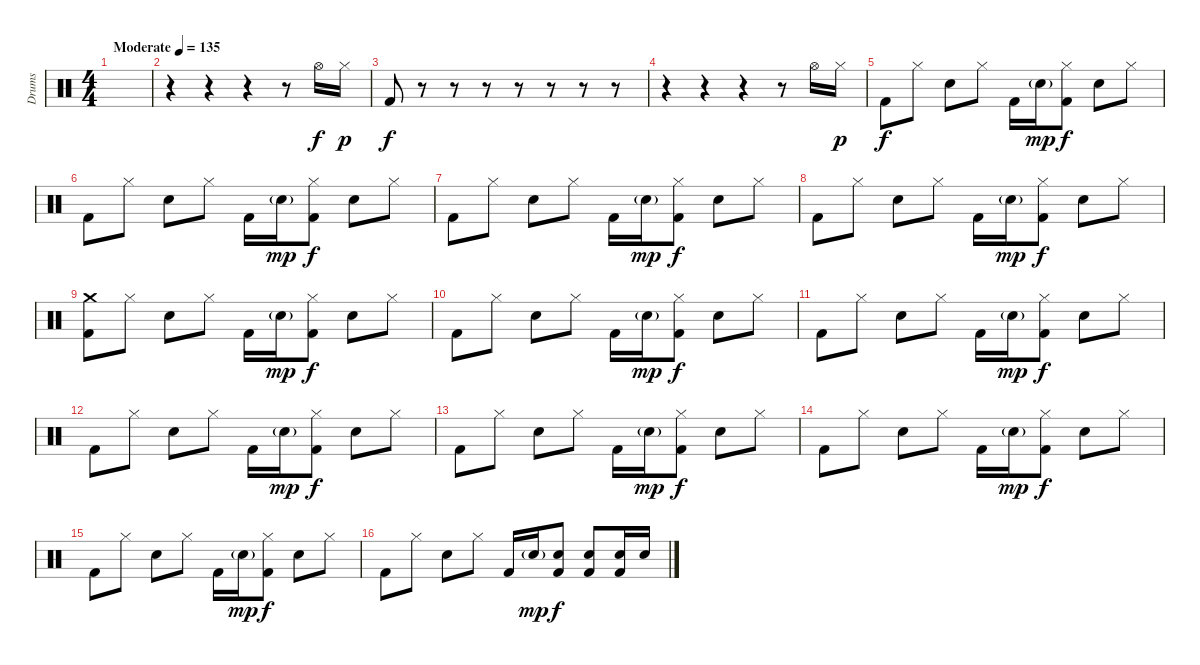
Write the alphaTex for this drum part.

\track ("Drums" "Drums") {instrument percussion}
\staff {score}
\articulation defaults
\ts (4 4)
\tempo (135 "Moderate")
\clef neutral
\ks c
|
r.4 r.4 r.4 r.8 "Hi-Hat (open)".16 "Hi-Hat (closed)".16{dy p} |
"Kick (hit) 2".8{dy f} r.8 r.8 r.8 r.8 r.8 r.8 r.8 |
r.4 r.4 r.4 r.8 "Hi-Hat (open)".16 "Hi-Hat (closed)".16{dy p} |
"Kick (hit) 2".8{dy f} "Hi-Hat (closed)".8 "Snare (hit) 2".8 "Hi-Hat (closed)".8 "Kick (hit) 2".16 "Snare (hit) 2"{g}.16{dy mp} ("Hi-Hat (closed)" "Kick (hit) 2").8{dy f} "Snare (hit) 2".8 "Hi-Hat (closed)".8 |
"Kick (hit) 2".8 "Hi-Hat (closed)".8 "Snare (hit) 2".8 "Hi-Hat (closed)".8 "Kick (hit) 2".16 "Snare (hit) 2"{g}.16{dy mp} ("Hi-Hat (closed)" "Kick (hit) 2").8{dy f} "Snare (hit) 2".8 "Hi-Hat (closed)".8 |
"Kick (hit) 2".8 "Hi-Hat (closed)".8 "Snare (hit) 2".8 "Hi-Hat (closed)".8 "Kick (hit) 2".16 "Snare (hit) 2"{g}.16{dy mp} ("Hi-Hat (closed)" "Kick (hit) 2").8{dy f} "Snare (hit) 2".8 "Hi-Hat (closed)".8 |
"Kick (hit) 2".8 "Hi-Hat (closed)".8 "Snare (hit) 2".8 "Hi-Hat (closed)".8 "Kick (hit) 2".16 "Snare (hit) 2"{g}.16{dy mp} ("Hi-Hat (closed)" "Kick (hit) 2").8{dy f} "Snare (hit) 2".8 "Hi-Hat (closed)".8 |
("Crash medium (hit)" "Kick (hit) 2").8 "Hi-Hat (closed)".8 "Snare (hit) 2".8 "Hi-Hat (closed)".8 "Kick (hit) 2".16 "Snare (hit) 2"{g}.16{dy mp} ("Hi-Hat (closed)" "Kick (hit) 2").8{dy f} "Snare (hit) 2".8 "Hi-Hat (closed)".8 |
"Kick (hit) 2".8 "Hi-Hat (closed)".8 "Snare (hit) 2".8 "Hi-Hat (closed)".8 "Kick (hit) 2".16 "Snare (hit) 2"{g}.16{dy mp} ("Hi-Hat (closed)" "Kick (hit) 2").8{dy f} "Snare (hit) 2".8 "Hi-Hat (closed)".8 |
"Kick (hit) 2".8 "Hi-Hat (closed)".8 "Snare (hit) 2".8 "Hi-Hat (closed)".8 "Kick (hit) 2".16 "Snare (hit) 2"{g}.16{dy mp} ("Hi-Hat (closed)" "Kick (hit) 2").8{dy f} "Snare (hit) 2".8 "Hi-Hat (closed)".8 |
"Kick (hit) 2".8 "Hi-Hat (closed)".8 "Snare (hit) 2".8 "Hi-Hat (closed)".8 "Kick (hit) 2".16 "Snare (hit) 2"{g}.16{dy mp} ("Hi-Hat (closed)" "Kick (hit) 2").8{dy f} "Snare (hit) 2".8 "Hi-Hat (closed)".8 |
"Kick (hit) 2".8 "Hi-Hat (closed)".8 "Snare (hit) 2".8 "Hi-Hat (closed)".8 "Kick (hit) 2".16 "Snare (hit) 2"{g}.16{dy mp} ("Hi-Hat (closed)" "Kick (hit) 2").8{dy f} "Snare (hit) 2".8 "Hi-Hat (closed)".8 |
"Kick (hit) 2".8 "Hi-Hat (closed)".8 "Snare (hit) 2".8 "Hi-Hat (closed)".8 "Kick (hit) 2".16 "Snare (hit) 2"{g}.16{dy mp} ("Hi-Hat (closed)" "Kick (hit) 2").8{dy f} "Snare (hit) 2".8 "Hi-Hat (closed)".8 |
"Kick (hit) 2".8 "Hi-Hat (closed)".8 "Snare (hit) 2".8 "Hi-Hat (closed)".8 "Kick (hit) 2".16 "Snare (hit) 2"{g}.16{dy mp} ("Hi-Hat (closed)" "Kick (hit) 2").8{dy f} "Snare (hit) 2".8 "Hi-Hat (closed)".8 |
"Kick (hit) 2".8 "Hi-Hat (closed)".8 "Snare (hit) 2".8 "Hi-Hat (closed)".8 "Kick (hit) 2".16 "Snare (hit) 2"{g}.16{dy mp} ("Snare (hit) 2" "Kick (hit) 2").8{dy f} ("Snare (hit) 2" "Kick (hit) 2").8 ("Snare (hit) 2" "Kick (hit) 2").16 "Snare (hit) 2".16
